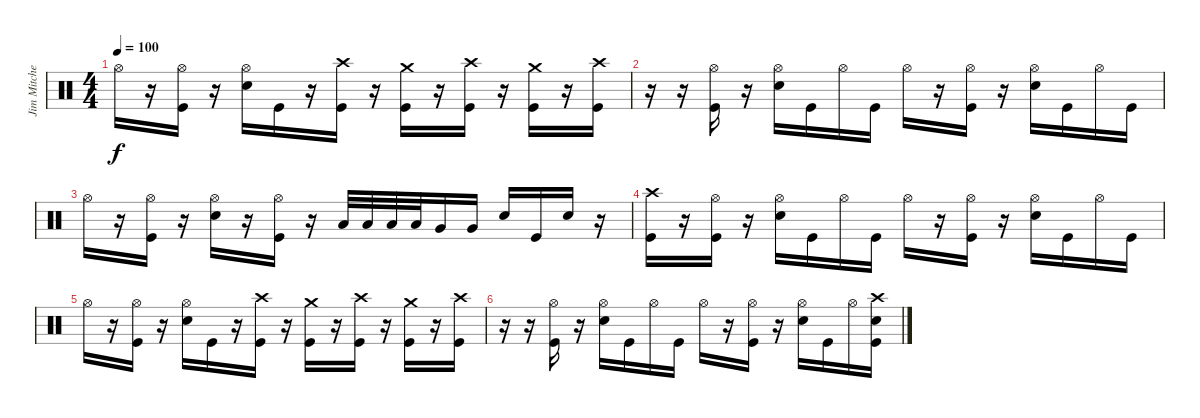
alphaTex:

\track ("Jim Mitchell" "Jim Mitche") {instrument percussion}
\staff {score}
\articulation defaults
\ts (4 4)
\tempo 100
\clef neutral
\ks c "Hi-Hat (open)".16{dy f}
r.16 ("Hi-Hat (open)" "Kick (hit)").16 r.16 ("Hi-Hat (open)" "Snare (hit) 2").16 "Kick (hit)".16 r.16 ("Crash high (hit)" "Kick (hit)").16 r.16 ("Crash medium (hit)" "Kick (hit)").16 r.16 ("Crash high (hit)" "Kick (hit)").16 r.16 ("Crash medium (hit)" "Kick (hit)").16 r.16 ("Crash high (hit)" "Kick (hit)").16 |
r.16 r.16 ("Hi-Hat (open)" "Kick (hit)").16 r.16 ("Hi-Hat (open)" "Snare (hit) 2").16 "Kick (hit)".16 "Hi-Hat (open)".16 "Kick (hit)".16 "Hi-Hat (open)".16 r.16 ("Hi-Hat (open)" "Kick (hit)").16 r.16 ("Hi-Hat (open)" "Snare (hit) 2").16 "Kick (hit)".16 "Hi-Hat (open)".16 "Kick (hit)".16 |
"Hi-Hat (open)".16 r.16 ("Hi-Hat (open)" "Kick (hit)").16 r.16 ("Hi-Hat (open)" "Snare (hit) 2").16 r.16 ("Hi-Hat (open)" "Kick (hit)").16 r.16 "Low Tom (hit)".32 "Low Tom (hit)".32 "Low Tom (hit)".32 "Low Tom (hit)".32 "Very Low Tom (hit)".16 "Very Low Tom (hit)".16 "Snare (hit) 2".16 "Kick (hit)".16 "Snare (hit) 2".16 r.16 |
("Crash high (hit)" "Kick (hit)").16 r.16 ("Hi-Hat (open)" "Kick (hit)").16 r.16 ("Hi-Hat (open)" "Snare (hit) 2").16 "Kick (hit)".16 "Hi-Hat (open)".16 "Kick (hit)".16 "Hi-Hat (open)".16 r.16 ("Hi-Hat (open)" "Kick (hit)").16 r.16 ("Hi-Hat (open)" "Snare (hit) 2").16 "Kick (hit)".16 "Hi-Hat (open)".16 "Kick (hit)".16 |
"Hi-Hat (open)".16 r.16 ("Hi-Hat (open)" "Kick (hit)").16 r.16 ("Hi-Hat (open)" "Snare (hit) 2").16 "Kick (hit)".16 r.16 ("Crash high (hit)" "Kick (hit)").16 r.16 ("Crash medium (hit)" "Kick (hit)").16 r.16 ("Crash high (hit)" "Kick (hit)").16 r.16 ("Crash medium (hit)" "Kick (hit)").16 r.16 ("Crash high (hit)" "Kick (hit)").16 |
r.16 r.16 ("Hi-Hat (open)" "Kick (hit)").16 r.16 ("Hi-Hat (open)" "Snare (hit) 2").16 "Kick (hit)".16 "Hi-Hat (open)".16 "Kick (hit)".16 "Hi-Hat (open)".16 r.16 ("Hi-Hat (open)" "Kick (hit)").16 r.16 ("Hi-Hat (open)" "Snare (hit) 2").16 "Kick (hit)".16 "Hi-Hat (open)".16 ("Crash high (hit)" "Snare (hit) 2" "Kick (hit)").16
